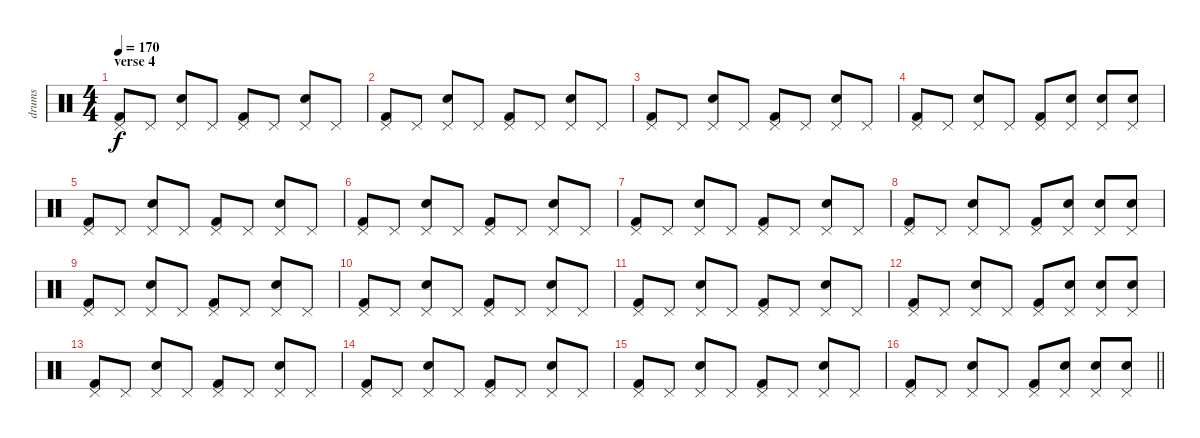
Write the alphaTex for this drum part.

\track ("drums" "drums") {instrument percussion}
\staff {score}
\articulation defaults
\ts (4 4)
\section ("" "verse 4")
\tempo 170
\clef neutral
\ks c
("Kick (hit) 2" "Pedal Hi-Hat (hit)").8{dy f} "Pedal Hi-Hat (hit)".8 ("Electric Snare (hit)" "Pedal Hi-Hat (hit)").8 "Pedal Hi-Hat (hit)".8 ("Kick (hit) 2" "Pedal Hi-Hat (hit)").8 "Pedal Hi-Hat (hit)".8 ("Electric Snare (hit)" "Pedal Hi-Hat (hit)").8 "Pedal Hi-Hat (hit)".8 |
("Kick (hit) 2" "Pedal Hi-Hat (hit)").8 "Pedal Hi-Hat (hit)".8 ("Electric Snare (hit)" "Pedal Hi-Hat (hit)").8 "Pedal Hi-Hat (hit)".8 ("Kick (hit) 2" "Pedal Hi-Hat (hit)").8 "Pedal Hi-Hat (hit)".8 ("Electric Snare (hit)" "Pedal Hi-Hat (hit)").8 "Pedal Hi-Hat (hit)".8 |
("Kick (hit) 2" "Pedal Hi-Hat (hit)").8 "Pedal Hi-Hat (hit)".8 ("Electric Snare (hit)" "Pedal Hi-Hat (hit)").8 "Pedal Hi-Hat (hit)".8 ("Kick (hit) 2" "Pedal Hi-Hat (hit)").8 "Pedal Hi-Hat (hit)".8 ("Electric Snare (hit)" "Pedal Hi-Hat (hit)").8 "Pedal Hi-Hat (hit)".8 |
("Kick (hit) 2" "Pedal Hi-Hat (hit)").8 "Pedal Hi-Hat (hit)".8 ("Electric Snare (hit)" "Pedal Hi-Hat (hit)").8 "Pedal Hi-Hat (hit)".8 ("Kick (hit) 2" "Pedal Hi-Hat (hit)").8 ("Electric Snare (hit)" "Pedal Hi-Hat (hit)").8 ("Electric Snare (hit)" "Pedal Hi-Hat (hit)").8 ("Electric Snare (hit)" "Pedal Hi-Hat (hit)").8 |
("Kick (hit) 2" "Pedal Hi-Hat (hit)").8 "Pedal Hi-Hat (hit)".8 ("Electric Snare (hit)" "Pedal Hi-Hat (hit)").8 "Pedal Hi-Hat (hit)".8 ("Kick (hit) 2" "Pedal Hi-Hat (hit)").8 "Pedal Hi-Hat (hit)".8 ("Electric Snare (hit)" "Pedal Hi-Hat (hit)").8 "Pedal Hi-Hat (hit)".8 |
("Kick (hit) 2" "Pedal Hi-Hat (hit)").8 "Pedal Hi-Hat (hit)".8 ("Electric Snare (hit)" "Pedal Hi-Hat (hit)").8 "Pedal Hi-Hat (hit)".8 ("Kick (hit) 2" "Pedal Hi-Hat (hit)").8 "Pedal Hi-Hat (hit)".8 ("Electric Snare (hit)" "Pedal Hi-Hat (hit)").8 "Pedal Hi-Hat (hit)".8 |
("Kick (hit) 2" "Pedal Hi-Hat (hit)").8 "Pedal Hi-Hat (hit)".8 ("Electric Snare (hit)" "Pedal Hi-Hat (hit)").8 "Pedal Hi-Hat (hit)".8 ("Kick (hit) 2" "Pedal Hi-Hat (hit)").8 "Pedal Hi-Hat (hit)".8 ("Electric Snare (hit)" "Pedal Hi-Hat (hit)").8 "Pedal Hi-Hat (hit)".8 |
("Kick (hit) 2" "Pedal Hi-Hat (hit)").8 "Pedal Hi-Hat (hit)".8 ("Electric Snare (hit)" "Pedal Hi-Hat (hit)").8 "Pedal Hi-Hat (hit)".8 ("Kick (hit) 2" "Pedal Hi-Hat (hit)").8 ("Electric Snare (hit)" "Pedal Hi-Hat (hit)").8 ("Electric Snare (hit)" "Pedal Hi-Hat (hit)").8 ("Electric Snare (hit)" "Pedal Hi-Hat (hit)").8 |
("Kick (hit) 2" "Pedal Hi-Hat (hit)").8 "Pedal Hi-Hat (hit)".8 ("Electric Snare (hit)" "Pedal Hi-Hat (hit)").8 "Pedal Hi-Hat (hit)".8 ("Kick (hit) 2" "Pedal Hi-Hat (hit)").8 "Pedal Hi-Hat (hit)".8 ("Electric Snare (hit)" "Pedal Hi-Hat (hit)").8 "Pedal Hi-Hat (hit)".8 |
("Kick (hit) 2" "Pedal Hi-Hat (hit)").8 "Pedal Hi-Hat (hit)".8 ("Electric Snare (hit)" "Pedal Hi-Hat (hit)").8 "Pedal Hi-Hat (hit)".8 ("Kick (hit) 2" "Pedal Hi-Hat (hit)").8 "Pedal Hi-Hat (hit)".8 ("Electric Snare (hit)" "Pedal Hi-Hat (hit)").8 "Pedal Hi-Hat (hit)".8 |
("Kick (hit) 2" "Pedal Hi-Hat (hit)").8 "Pedal Hi-Hat (hit)".8 ("Electric Snare (hit)" "Pedal Hi-Hat (hit)").8 "Pedal Hi-Hat (hit)".8 ("Kick (hit) 2" "Pedal Hi-Hat (hit)").8 "Pedal Hi-Hat (hit)".8 ("Electric Snare (hit)" "Pedal Hi-Hat (hit)").8 "Pedal Hi-Hat (hit)".8 |
("Kick (hit) 2" "Pedal Hi-Hat (hit)").8 "Pedal Hi-Hat (hit)".8 ("Electric Snare (hit)" "Pedal Hi-Hat (hit)").8 "Pedal Hi-Hat (hit)".8 ("Kick (hit) 2" "Pedal Hi-Hat (hit)").8 ("Electric Snare (hit)" "Pedal Hi-Hat (hit)").8 ("Electric Snare (hit)" "Pedal Hi-Hat (hit)").8 ("Electric Snare (hit)" "Pedal Hi-Hat (hit)").8 |
("Kick (hit) 2" "Pedal Hi-Hat (hit)").8 "Pedal Hi-Hat (hit)".8 ("Electric Snare (hit)" "Pedal Hi-Hat (hit)").8 "Pedal Hi-Hat (hit)".8 ("Kick (hit) 2" "Pedal Hi-Hat (hit)").8 "Pedal Hi-Hat (hit)".8 ("Electric Snare (hit)" "Pedal Hi-Hat (hit)").8 "Pedal Hi-Hat (hit)".8 |
("Kick (hit) 2" "Pedal Hi-Hat (hit)").8 "Pedal Hi-Hat (hit)".8 ("Electric Snare (hit)" "Pedal Hi-Hat (hit)").8 "Pedal Hi-Hat (hit)".8 ("Kick (hit) 2" "Pedal Hi-Hat (hit)").8 "Pedal Hi-Hat (hit)".8 ("Electric Snare (hit)" "Pedal Hi-Hat (hit)").8 "Pedal Hi-Hat (hit)".8 |
("Kick (hit) 2" "Pedal Hi-Hat (hit)").8 "Pedal Hi-Hat (hit)".8 ("Electric Snare (hit)" "Pedal Hi-Hat (hit)").8 "Pedal Hi-Hat (hit)".8 ("Kick (hit) 2" "Pedal Hi-Hat (hit)").8 "Pedal Hi-Hat (hit)".8 ("Electric Snare (hit)" "Pedal Hi-Hat (hit)").8 "Pedal Hi-Hat (hit)".8 |
\barLineRight lightlight
("Kick (hit) 2" "Pedal Hi-Hat (hit)").8 "Pedal Hi-Hat (hit)".8 ("Electric Snare (hit)" "Pedal Hi-Hat (hit)").8 "Pedal Hi-Hat (hit)".8 ("Kick (hit) 2" "Pedal Hi-Hat (hit)").8 ("Electric Snare (hit)" "Pedal Hi-Hat (hit)").8 ("Electric Snare (hit)" "Pedal Hi-Hat (hit)").8 ("Electric Snare (hit)" "Pedal Hi-Hat (hit)").8
